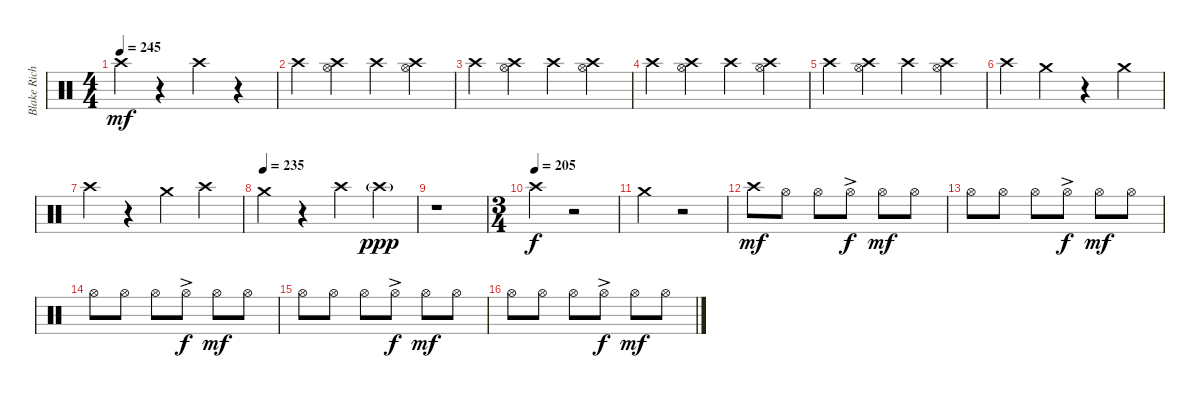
\track ("Blake Richardson Drums" "Blake Rich") {instrument percussion}
\staff {score}
\articulation defaults
\ts (4 4)
\tempo 245
\clef neutral
\ks c "Crash high (hit)".4{dy mf}
r.4 "Crash high (hit)".4 r.4 |
"Crash high (hit)".4 ("Crash high (hit)" "Hi-Hat (open)").4 "Crash high (hit)".4 ("Crash high (hit)" "Hi-Hat (open)").4 |
"Crash high (hit)".4 ("Crash high (hit)" "Hi-Hat (open)").4 "Crash high (hit)".4 ("Crash high (hit)" "Hi-Hat (open)").4 |
"Crash high (hit)".4 ("Crash high (hit)" "Hi-Hat (open)").4 "Crash high (hit)".4 ("Crash high (hit)" "Hi-Hat (open)").4 |
"Crash high (hit)".4 ("Crash high (hit)" "Hi-Hat (open)").4 "Crash high (hit)".4 ("Crash high (hit)" "Hi-Hat (open)").4 |
"Crash high (hit)".4 "Crash medium (hit)".4 r.4 "Crash medium (hit)".4 |
"Crash high (hit)".4 r.4 "Crash medium (hit)".4 "Crash high (hit)".4 |
\tempo (235)
"Crash medium (hit)".4 r.4 "Crash high (hit)".4 "Crash high (hit)"{g}.4{dy ppp} |
r.1 |
\ts (3 4)
\tempo (205)
"Crash high (hit)".4{dy f} r.2 |
"Crash medium (hit)".4 r.2 |
"Crash high (hit)".8{dy mf} "Hi-Hat (open)".8 "Hi-Hat (open)".8 "Hi-Hat (open)"{ac}.8{dy f} "Hi-Hat (open)".8{dy mf} "Hi-Hat (open)".8 |
"Hi-Hat (open)".8 "Hi-Hat (open)".8 "Hi-Hat (open)".8 "Hi-Hat (open)"{ac}.8{dy f} "Hi-Hat (open)".8{dy mf} "Hi-Hat (open)".8 |
"Hi-Hat (open)".8 "Hi-Hat (open)".8 "Hi-Hat (open)".8 "Hi-Hat (open)"{ac}.8{dy f} "Hi-Hat (open)".8{dy mf} "Hi-Hat (open)".8 |
"Hi-Hat (open)".8 "Hi-Hat (open)".8 "Hi-Hat (open)".8 "Hi-Hat (open)"{ac}.8{dy f} "Hi-Hat (open)".8{dy mf} "Hi-Hat (open)".8 |
"Hi-Hat (open)".8 "Hi-Hat (open)".8 "Hi-Hat (open)".8 "Hi-Hat (open)"{ac}.8{dy f} "Hi-Hat (open)".8{dy mf} "Hi-Hat (open)".8
